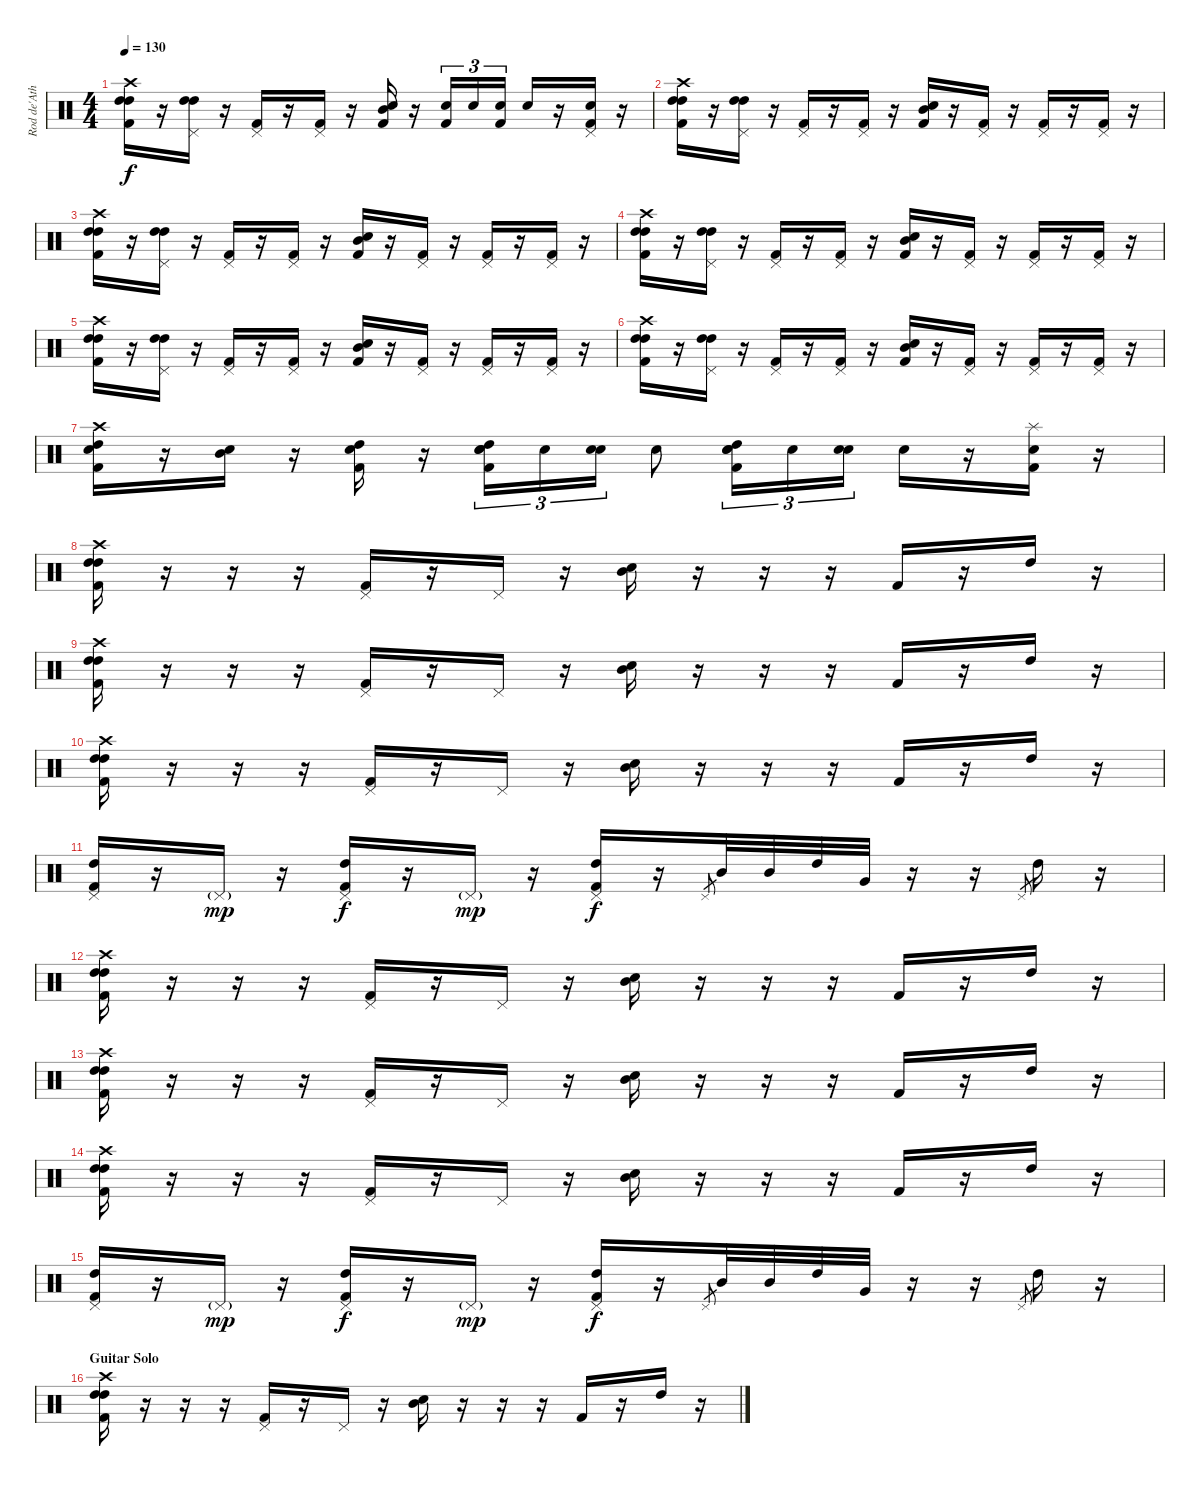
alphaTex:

\track ("Rod de'Ath" "Rod de'Ath") {instrument percussion}
\staff {score}
\articulation defaults
\ts (4 4)
\tempo 130
\clef neutral
\ks c
("Crash high (hit)" "High Tom (hit)" "High Tom (hit)" "Kick (hit) 2").16{dy f} r.16 ("Pedal Hi-Hat (hit)" "High Tom (hit)" "High Tom (hit)").16 r.16 ("Pedal Hi-Hat (hit)" "Kick (hit) 2").16 r.16 ("Pedal Hi-Hat (hit)" "Kick (hit) 2").16 r.16 ("Snare (hit) 2" "Mid Tom (hit)" "Kick (hit) 2").16 r.16 ("Electric Snare (hit)" "Kick (hit) 2").16{tu (3 2)} "Electric Snare (hit)".16{tu (3 2)} ("Electric Snare (hit)" "Kick (hit) 2").16{tu (3 2)} "Electric Snare (hit)".16 r.16 ("Electric Snare (hit)" "Pedal Hi-Hat (hit)" "Kick (hit) 2").16 r.16 |
("Crash high (hit)" "High Tom (hit)" "High Tom (hit)" "Kick (hit) 2").16 r.16 ("Pedal Hi-Hat (hit)" "High Tom (hit)" "High Tom (hit)").16 r.16 ("Pedal Hi-Hat (hit)" "Kick (hit) 2").16 r.16 ("Pedal Hi-Hat (hit)" "Kick (hit) 2").16 r.16 ("Snare (hit) 2" "Mid Tom (hit)" "Kick (hit) 2").16 r.16 ("Pedal Hi-Hat (hit)" "Kick (hit) 2").16 r.16 ("Pedal Hi-Hat (hit)" "Kick (hit) 2").16 r.16 ("Pedal Hi-Hat (hit)" "Kick (hit) 2").16 r.16 |
("Crash high (hit)" "High Tom (hit)" "High Tom (hit)" "Kick (hit) 2").16 r.16 ("Pedal Hi-Hat (hit)" "High Tom (hit)" "High Tom (hit)").16 r.16 ("Pedal Hi-Hat (hit)" "Kick (hit) 2").16 r.16 ("Pedal Hi-Hat (hit)" "Kick (hit) 2").16 r.16 ("Snare (hit) 2" "Mid Tom (hit)" "Kick (hit) 2").16 r.16 ("Pedal Hi-Hat (hit)" "Kick (hit) 2").16 r.16 ("Pedal Hi-Hat (hit)" "Kick (hit) 2").16 r.16 ("Pedal Hi-Hat (hit)" "Kick (hit) 2").16 r.16 |
("Crash high (hit)" "High Tom (hit)" "High Tom (hit)" "Kick (hit) 2").16 r.16 ("Pedal Hi-Hat (hit)" "High Tom (hit)" "High Tom (hit)").16 r.16 ("Pedal Hi-Hat (hit)" "Kick (hit) 2").16 r.16 ("Pedal Hi-Hat (hit)" "Kick (hit) 2").16 r.16 ("Snare (hit) 2" "Mid Tom (hit)" "Kick (hit) 2").16 r.16 ("Pedal Hi-Hat (hit)" "Kick (hit) 2").16 r.16 ("Pedal Hi-Hat (hit)" "Kick (hit) 2").16 r.16 ("Pedal Hi-Hat (hit)" "Kick (hit) 2").16 r.16 |
("Crash high (hit)" "High Tom (hit)" "High Tom (hit)" "Kick (hit) 2").16 r.16 ("Pedal Hi-Hat (hit)" "High Tom (hit)" "High Tom (hit)").16 r.16 ("Pedal Hi-Hat (hit)" "Kick (hit) 2").16 r.16 ("Pedal Hi-Hat (hit)" "Kick (hit) 2").16 r.16 ("Snare (hit) 2" "Mid Tom (hit)" "Kick (hit) 2").16 r.16 ("Pedal Hi-Hat (hit)" "Kick (hit) 2").16 r.16 ("Pedal Hi-Hat (hit)" "Kick (hit) 2").16 r.16 ("Pedal Hi-Hat (hit)" "Kick (hit) 2").16 r.16 |
("Crash high (hit)" "High Tom (hit)" "High Tom (hit)" "Kick (hit) 2").16 r.16 ("Pedal Hi-Hat (hit)" "High Tom (hit)" "High Tom (hit)").16 r.16 ("Pedal Hi-Hat (hit)" "Kick (hit) 2").16 r.16 ("Pedal Hi-Hat (hit)" "Kick (hit) 2").16 r.16 ("Snare (hit) 2" "Mid Tom (hit)" "Kick (hit) 2").16 r.16 ("Pedal Hi-Hat (hit)" "Kick (hit) 2").16 r.16 ("Pedal Hi-Hat (hit)" "Kick (hit) 2").16 r.16 ("Pedal Hi-Hat (hit)" "Kick (hit) 2").16 r.16 |
("Crash high (hit)" "Snare (hit) 2" "High Tom (hit)" "Kick (hit) 2").16 r.16 ("Snare (hit) 2" "Mid Tom (hit)").16 r.16 ("Snare (hit) 2" "High Tom (hit)" "Kick (hit) 2").16 r.16 ("Snare (hit) 2" "High Tom (hit)" "Electric Snare (hit)" "Kick (hit) 2").16{tu (3 2)} "Electric Snare (hit)".16{tu (3 2)} ("Snare (hit) 2" "Electric Snare (hit)").16{tu (3 2)} "Electric Snare (hit)".8 ("Snare (hit) 2" "High Tom (hit)" "Electric Snare (hit)" "Kick (hit) 2").16{tu (3 2)} "Electric Snare (hit)".16{tu (3 2)} ("Snare (hit) 2" "Electric Snare (hit)").16{tu (3 2)} "Electric Snare (hit)".16 r.16 ("Kick (hit) 2" "Splash (hit)" "Electric Snare (hit)").16 r.16 |
("Crash high (hit)" "High Tom (hit)" "High Tom (hit)" "Kick (hit) 2").16 r.16 r.16 r.16 ("Pedal Hi-Hat (hit)" "Kick (hit) 2").16 r.16 "Pedal Hi-Hat (hit)".16 r.16 ("Electric Snare (hit)" "Mid Tom (hit)").16 r.16 r.16 r.16 "Kick (hit) 2".16 r.16 "High Tom (hit)".16 r.16 |
("Crash high (hit)" "High Tom (hit)" "High Tom (hit)" "Kick (hit) 2").16 r.16 r.16 r.16 ("Pedal Hi-Hat (hit)" "Kick (hit) 2").16 r.16 "Pedal Hi-Hat (hit)".16 r.16 ("Electric Snare (hit)" "Mid Tom (hit)").16 r.16 r.16 r.16 "Kick (hit) 2".16 r.16 "High Tom (hit)".16 r.16 |
("Crash high (hit)" "High Tom (hit)" "High Tom (hit)" "Kick (hit) 2").16 r.16 r.16 r.16 ("Pedal Hi-Hat (hit)" "Kick (hit) 2").16 r.16 "Pedal Hi-Hat (hit)".16 r.16 ("Electric Snare (hit)" "Mid Tom (hit)").16 r.16 r.16 r.16 "Kick (hit) 2".16 r.16 "High Tom (hit)".16 r.16 |
("Pedal Hi-Hat (hit)" "High Tom (hit)" "Kick (hit) 2").16 r.16 "Pedal Hi-Hat (hit)"{g}.16{dy mp} r.16 ("Pedal Hi-Hat (hit)" "High Tom (hit)" "Kick (hit) 2").16{dy f} r.16 "Pedal Hi-Hat (hit)"{g}.16{dy mp} r.16 ("Pedal Hi-Hat (hit)" "High Tom (hit)" "Kick (hit) 2").16{dy f} r.16 "Pedal Hi-Hat (hit)".8{gr} "Mid Tom (hit)".32 "Mid Tom (hit)".32 "High Tom (hit)".32 "Very Low Tom (hit)".32 r.16 r.16 "Pedal Hi-Hat (hit)".8{gr} "High Tom (hit)".16 r.16 |
("Crash high (hit)" "High Tom (hit)" "High Tom (hit)" "Kick (hit) 2").16 r.16 r.16 r.16 ("Pedal Hi-Hat (hit)" "Kick (hit) 2").16 r.16 "Pedal Hi-Hat (hit)".16 r.16 ("Electric Snare (hit)" "Mid Tom (hit)").16 r.16 r.16 r.16 "Kick (hit) 2".16 r.16 "High Tom (hit)".16 r.16 |
("Crash high (hit)" "High Tom (hit)" "High Tom (hit)" "Kick (hit) 2").16 r.16 r.16 r.16 ("Pedal Hi-Hat (hit)" "Kick (hit) 2").16 r.16 "Pedal Hi-Hat (hit)".16 r.16 ("Electric Snare (hit)" "Mid Tom (hit)").16 r.16 r.16 r.16 "Kick (hit) 2".16 r.16 "High Tom (hit)".16 r.16 |
("Crash high (hit)" "High Tom (hit)" "High Tom (hit)" "Kick (hit) 2").16 r.16 r.16 r.16 ("Pedal Hi-Hat (hit)" "Kick (hit) 2").16 r.16 "Pedal Hi-Hat (hit)".16 r.16 ("Electric Snare (hit)" "Mid Tom (hit)").16 r.16 r.16 r.16 "Kick (hit) 2".16 r.16 "High Tom (hit)".16 r.16 |
("Pedal Hi-Hat (hit)" "High Tom (hit)" "Kick (hit) 2").16 r.16 "Pedal Hi-Hat (hit)"{g}.16{dy mp} r.16 ("Pedal Hi-Hat (hit)" "High Tom (hit)" "Kick (hit) 2").16{dy f} r.16 "Pedal Hi-Hat (hit)"{g}.16{dy mp} r.16 ("Pedal Hi-Hat (hit)" "High Tom (hit)" "Kick (hit) 2").16{dy f} r.16 "Pedal Hi-Hat (hit)".8{gr} "Mid Tom (hit)".32 "Mid Tom (hit)".32 "High Tom (hit)".32 "Very Low Tom (hit)".32 r.16 r.16 "Pedal Hi-Hat (hit)".8{gr} "High Tom (hit)".16 r.16 |
\section ("" "Guitar Solo")
("Crash high (hit)" "High Tom (hit)" "High Tom (hit)" "Kick (hit) 2").16 r.16 r.16 r.16 ("Pedal Hi-Hat (hit)" "Kick (hit) 2").16 r.16 "Pedal Hi-Hat (hit)".16 r.16 ("Electric Snare (hit)" "Mid Tom (hit)").16 r.16 r.16 r.16 "Kick (hit) 2".16 r.16 "High Tom (hit)".16 r.16
